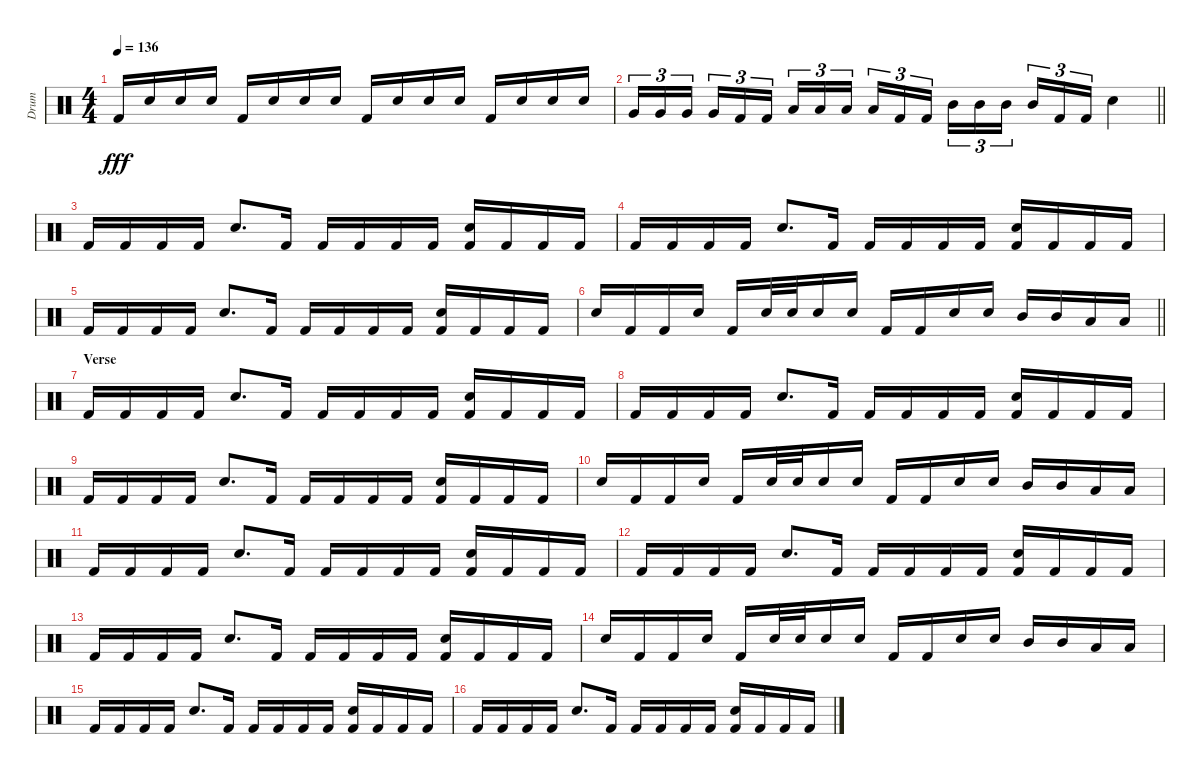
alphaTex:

\track ("Drum" "Drum") {instrument percussion}
\staff {score}
\articulation defaults
\ts (4 4)
\tempo 136
\clef neutral
\ks c "Kick (hit) 2".16{dy fff} "Electric Snare (hit)".16 "Electric Snare (hit)".16 "Electric Snare (hit)".16 "Kick (hit) 2".16 "Electric Snare (hit)".16 "Electric Snare (hit)".16 "Electric Snare (hit)".16 "Kick (hit) 2".16 "Electric Snare (hit)".16 "Electric Snare (hit)".16 "Electric Snare (hit)".16 "Kick (hit) 2".16 "Electric Snare (hit)".16 "Electric Snare (hit)".16 "Electric Snare (hit)".16
|
\barLineRight lightlight "Very Low Tom (hit)".16{tu (3 2)} "Very Low Tom (hit)".16{tu (3 2)} "Very Low Tom (hit)".16{tu (3 2) beam splitsecondary} "Very Low Tom (hit)".16{tu (3 2)} "Kick (hit) 2".16{tu (3 2)} "Kick (hit) 2".16{tu (3 2)} "Low Tom (hit)".16{tu (3 2)} "Low Tom (hit)".16{tu (3 2)} "Low Tom (hit)".16{tu (3 2) beam splitsecondary} "Low Tom (hit)".16{tu (3 2)} "Kick (hit) 2".16{tu (3 2)} "Kick (hit) 2".16{tu (3 2)} "Mid Tom (hit)".16{tu (3 2)} "Mid Tom (hit)".16{tu (3 2)} "Mid Tom (hit)".16{tu (3 2) beam splitsecondary} "Mid Tom (hit)".16{tu (3 2)} "Kick (hit) 2".16{tu (3 2)} "Kick (hit) 2".16{tu (3 2)} "Electric Snare (hit)".4
|
\section ("" "")
"Kick (hit) 2".16 "Kick (hit) 2".16 "Kick (hit) 2".16 "Kick (hit) 2".16 "Electric Snare (hit)".8{d} "Kick (hit) 2".16 "Kick (hit) 2".16 "Kick (hit) 2".16 "Kick (hit) 2".16 "Kick (hit) 2".16 ("Electric Snare (hit)" "Kick (hit) 2").16 "Kick (hit) 2".16 "Kick (hit) 2".16 "Kick (hit) 2".16 |
"Kick (hit) 2".16 "Kick (hit) 2".16 "Kick (hit) 2".16 "Kick (hit) 2".16 "Electric Snare (hit)".8{d} "Kick (hit) 2".16 "Kick (hit) 2".16 "Kick (hit) 2".16 "Kick (hit) 2".16 "Kick (hit) 2".16 ("Electric Snare (hit)" "Kick (hit) 2").16 "Kick (hit) 2".16 "Kick (hit) 2".16 "Kick (hit) 2".16 |
"Kick (hit) 2".16 "Kick (hit) 2".16 "Kick (hit) 2".16 "Kick (hit) 2".16 "Electric Snare (hit)".8{d} "Kick (hit) 2".16 "Kick (hit) 2".16 "Kick (hit) 2".16 "Kick (hit) 2".16 "Kick (hit) 2".16 ("Electric Snare (hit)" "Kick (hit) 2").16 "Kick (hit) 2".16 "Kick (hit) 2".16 "Kick (hit) 2".16 |
\barLineRight lightlight "Electric Snare (hit)".16 "Kick (hit) 2".16 "Kick (hit) 2".16 "Electric Snare (hit)".16 "Kick (hit) 2".16 "Electric Snare (hit)".32 "Electric Snare (hit)".32 "Electric Snare (hit)".16 "Electric Snare (hit)".16 "Kick (hit) 2".16 "Kick (hit) 2".16 "Electric Snare (hit)".16 "Electric Snare (hit)".16 "Mid Tom (hit)".16 "Mid Tom (hit)".16 "Low Tom (hit)".16 "Low Tom (hit)".16
|
\section ("" "Verse")
"Kick (hit) 2".16 "Kick (hit) 2".16 "Kick (hit) 2".16 "Kick (hit) 2".16 "Electric Snare (hit)".8{d} "Kick (hit) 2".16 "Kick (hit) 2".16 "Kick (hit) 2".16 "Kick (hit) 2".16 "Kick (hit) 2".16 ("Electric Snare (hit)" "Kick (hit) 2").16 "Kick (hit) 2".16 "Kick (hit) 2".16 "Kick (hit) 2".16 |
"Kick (hit) 2".16 "Kick (hit) 2".16 "Kick (hit) 2".16 "Kick (hit) 2".16 "Electric Snare (hit)".8{d} "Kick (hit) 2".16 "Kick (hit) 2".16 "Kick (hit) 2".16 "Kick (hit) 2".16 "Kick (hit) 2".16 ("Electric Snare (hit)" "Kick (hit) 2").16 "Kick (hit) 2".16 "Kick (hit) 2".16 "Kick (hit) 2".16 |
"Kick (hit) 2".16 "Kick (hit) 2".16 "Kick (hit) 2".16 "Kick (hit) 2".16 "Electric Snare (hit)".8{d} "Kick (hit) 2".16 "Kick (hit) 2".16 "Kick (hit) 2".16 "Kick (hit) 2".16 "Kick (hit) 2".16 ("Electric Snare (hit)" "Kick (hit) 2").16 "Kick (hit) 2".16 "Kick (hit) 2".16 "Kick (hit) 2".16 |
"Electric Snare (hit)".16 "Kick (hit) 2".16 "Kick (hit) 2".16 "Electric Snare (hit)".16 "Kick (hit) 2".16 "Electric Snare (hit)".32 "Electric Snare (hit)".32 "Electric Snare (hit)".16 "Electric Snare (hit)".16 "Kick (hit) 2".16 "Kick (hit) 2".16 "Electric Snare (hit)".16 "Electric Snare (hit)".16 "Mid Tom (hit)".16 "Mid Tom (hit)".16 "Low Tom (hit)".16 "Low Tom (hit)".16 |
"Kick (hit) 2".16 "Kick (hit) 2".16 "Kick (hit) 2".16 "Kick (hit) 2".16 "Electric Snare (hit)".8{d} "Kick (hit) 2".16 "Kick (hit) 2".16 "Kick (hit) 2".16 "Kick (hit) 2".16 "Kick (hit) 2".16 ("Electric Snare (hit)" "Kick (hit) 2").16 "Kick (hit) 2".16 "Kick (hit) 2".16 "Kick (hit) 2".16 |
"Kick (hit) 2".16 "Kick (hit) 2".16 "Kick (hit) 2".16 "Kick (hit) 2".16 "Electric Snare (hit)".8{d} "Kick (hit) 2".16 "Kick (hit) 2".16 "Kick (hit) 2".16 "Kick (hit) 2".16 "Kick (hit) 2".16 ("Electric Snare (hit)" "Kick (hit) 2").16 "Kick (hit) 2".16 "Kick (hit) 2".16 "Kick (hit) 2".16 |
"Kick (hit) 2".16 "Kick (hit) 2".16 "Kick (hit) 2".16 "Kick (hit) 2".16 "Electric Snare (hit)".8{d} "Kick (hit) 2".16 "Kick (hit) 2".16 "Kick (hit) 2".16 "Kick (hit) 2".16 "Kick (hit) 2".16 ("Electric Snare (hit)" "Kick (hit) 2").16 "Kick (hit) 2".16 "Kick (hit) 2".16 "Kick (hit) 2".16 |
"Electric Snare (hit)".16 "Kick (hit) 2".16 "Kick (hit) 2".16 "Electric Snare (hit)".16 "Kick (hit) 2".16 "Electric Snare (hit)".32 "Electric Snare (hit)".32 "Electric Snare (hit)".16 "Electric Snare (hit)".16 "Kick (hit) 2".16 "Kick (hit) 2".16 "Electric Snare (hit)".16 "Electric Snare (hit)".16 "Mid Tom (hit)".16 "Mid Tom (hit)".16 "Low Tom (hit)".16 "Low Tom (hit)".16 |
"Kick (hit) 2".16 "Kick (hit) 2".16 "Kick (hit) 2".16 "Kick (hit) 2".16 "Electric Snare (hit)".8{d} "Kick (hit) 2".16 "Kick (hit) 2".16 "Kick (hit) 2".16 "Kick (hit) 2".16 "Kick (hit) 2".16 ("Electric Snare (hit)" "Kick (hit) 2").16 "Kick (hit) 2".16 "Kick (hit) 2".16 "Kick (hit) 2".16 |
"Kick (hit) 2".16 "Kick (hit) 2".16 "Kick (hit) 2".16 "Kick (hit) 2".16 "Electric Snare (hit)".8{d} "Kick (hit) 2".16 "Kick (hit) 2".16 "Kick (hit) 2".16 "Kick (hit) 2".16 "Kick (hit) 2".16 ("Electric Snare (hit)" "Kick (hit) 2").16 "Kick (hit) 2".16 "Kick (hit) 2".16 "Kick (hit) 2".16
